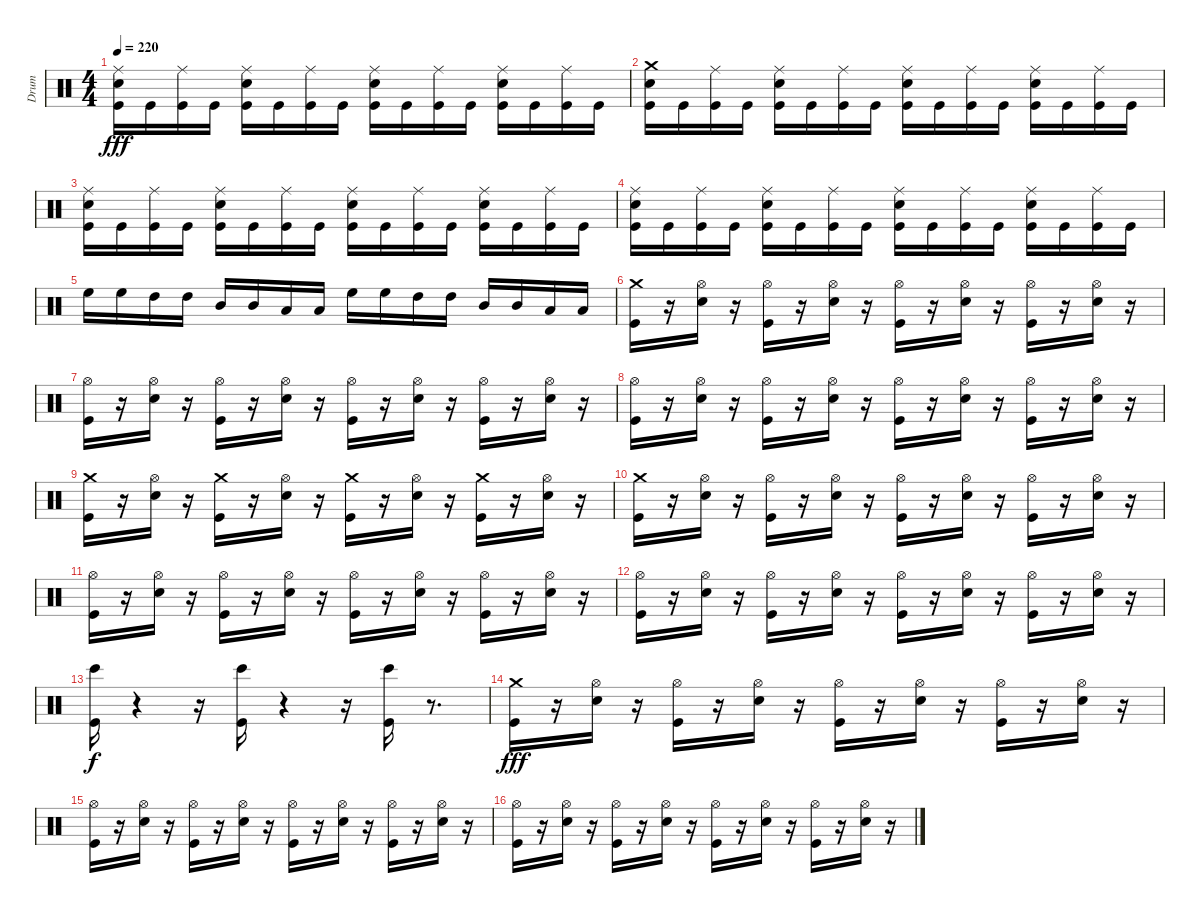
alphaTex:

\track ("Drum" "Drum") {instrument percussion}
\staff {score}
\articulation defaults
\ts (4 4)
\tempo 220
\clef neutral
\ks c
("Snare (hit) 2" "Kick (hit)" "Ride (middle)").16{dy fff} "Kick (hit)".16 ("Kick (hit)" "Ride (middle)").16 "Kick (hit)".16 ("Snare (hit) 2" "Ride (middle)" "Kick (hit)").16 "Kick (hit)".16 ("Kick (hit)" "Ride (middle)").16 "Kick (hit)".16 ("Snare (hit) 2" "Ride (middle)" "Kick (hit)").16 "Kick (hit)".16 ("Ride (middle)" "Kick (hit)").16 "Kick (hit)".16 ("Snare (hit) 2" "Ride (middle)" "Kick (hit)").16 "Kick (hit)".16 ("Ride (middle)" "Kick (hit)").16 "Kick (hit)".16 |
("Crash medium (hit)" "Snare (hit) 2" "Kick (hit)").16 "Kick (hit)".16 ("Ride (middle)" "Kick (hit)").16 "Kick (hit)".16 ("Snare (hit) 2" "Ride (middle)" "Kick (hit)").16 "Kick (hit)".16 ("Kick (hit)" "Ride (middle)").16 "Kick (hit)".16 ("Ride (middle)" "Snare (hit) 2" "Kick (hit)").16 "Kick (hit)".16 ("Kick (hit)" "Ride (middle)").16 "Kick (hit)".16 ("Kick (hit)" "Ride (middle)" "Snare (hit) 2").16 "Kick (hit)".16 ("Ride (middle)" "Kick (hit)").16 "Kick (hit)".16 |
("Ride (middle)" "Snare (hit) 2" "Kick (hit)").16 "Kick (hit)".16 ("Ride (middle)" "Kick (hit)").16 "Kick (hit)".16 ("Kick (hit)" "Ride (middle)" "Snare (hit) 2").16 "Kick (hit)".16 ("Ride (middle)" "Kick (hit)").16 "Kick (hit)".16 ("Snare (hit) 2" "Kick (hit)" "Ride (middle)").16 "Kick (hit)".16 ("Kick (hit)" "Ride (middle)").16 "Kick (hit)".16 ("Snare (hit) 2" "Ride (middle)" "Kick (hit)").16 "Kick (hit)".16 ("Kick (hit)" "Ride (middle)").16 "Kick (hit)".16 |
("Kick (hit)" "Ride (middle)" "Snare (hit) 2").16 "Kick (hit)".16 ("Kick (hit)" "Ride (middle)").16 "Kick (hit)".16 ("Ride (middle)" "Kick (hit)" "Snare (hit) 2").16 "Kick (hit)".16 ("Kick (hit)" "Ride (middle)").16 "Kick (hit)".16 ("Ride (middle)" "Kick (hit)" "Snare (hit) 2").16 "Kick (hit)".16 ("Kick (hit)" "Ride (middle)").16 "Kick (hit)".16 ("Snare (hit) 2" "Ride (middle)" "Kick (hit)").16 "Kick (hit)".16 ("Ride (middle)" "Kick (hit)").16 "Kick (hit)".16 |
"High Floor Tom (hit)".16 "High Floor Tom (hit)".16 "High Tom (hit)".16 "High Tom (hit)".16 "Mid Tom (hit)".16 "Mid Tom (hit)".16 "Low Tom (hit)".16 "Low Tom (hit)".16 "High Floor Tom (hit)".16 "High Floor Tom (hit)".16 "High Tom (hit)".16 "High Tom (hit)".16 "Mid Tom (hit)".16 "Mid Tom (hit)".16 "Low Tom (hit)".16 "Low Tom (hit)".16 |
("Crash medium (hit)" "Kick (hit)").16 r.16 ("Hi-Hat (open)" "Snare (hit) 2").16 r.16 ("Kick (hit)" "Hi-Hat (open)").16 r.16 ("Snare (hit) 2" "Hi-Hat (open)").16 r.16 ("Kick (hit)" "Hi-Hat (open)").16 r.16 ("Hi-Hat (open)" "Snare (hit) 2").16 r.16 ("Hi-Hat (open)" "Kick (hit)").16 r.16 ("Snare (hit) 2" "Hi-Hat (open)").16 r.16 |
("Kick (hit)" "Hi-Hat (open)").16 r.16 ("Hi-Hat (open)" "Snare (hit) 2").16 r.16 ("Hi-Hat (open)" "Kick (hit)").16 r.16 ("Hi-Hat (open)" "Snare (hit) 2").16 r.16 ("Kick (hit)" "Hi-Hat (open)").16 r.16 ("Hi-Hat (open)" "Snare (hit) 2").16 r.16 ("Kick (hit)" "Hi-Hat (open)").16 r.16 ("Hi-Hat (open)" "Snare (hit) 2").16 r.16 |
("Hi-Hat (open)" "Kick (hit)").16 r.16 ("Hi-Hat (open)" "Snare (hit) 2").16 r.16 ("Hi-Hat (open)" "Kick (hit)").16 r.16 ("Snare (hit) 2" "Hi-Hat (open)").16 r.16 ("Hi-Hat (open)" "Kick (hit)").16 r.16 ("Hi-Hat (open)" "Snare (hit) 2").16 r.16 ("Hi-Hat (open)" "Kick (hit)").16 r.16 ("Hi-Hat (open)" "Snare (hit) 2").16 r.16 |
("Kick (hit)" "Crash medium (hit)").16 r.16 ("Snare (hit) 2" "Hi-Hat (open)").16 r.16 ("Kick (hit)" "Crash medium (hit)").16 r.16 ("Snare (hit) 2" "Hi-Hat (open)").16 r.16 ("Crash medium (hit)" "Kick (hit)").16 r.16 ("Snare (hit) 2" "Hi-Hat (open)").16 r.16 ("Crash medium (hit)" "Kick (hit)").16 r.16 ("Hi-Hat (open)" "Snare (hit) 2").16 r.16 |
("Kick (hit)" "Crash medium (hit)").16 r.16 ("Hi-Hat (open)" "Snare (hit) 2").16 r.16 ("Hi-Hat (open)" "Kick (hit)").16 r.16 ("Hi-Hat (open)" "Snare (hit) 2").16 r.16 ("Hi-Hat (open)" "Kick (hit)").16 r.16 ("Snare (hit) 2" "Hi-Hat (open)").16 r.16 ("Hi-Hat (open)" "Kick (hit)").16 r.16 ("Hi-Hat (open)" "Snare (hit) 2").16 r.16 |
("Kick (hit)" "Hi-Hat (open)").16 r.16 ("Hi-Hat (open)" "Snare (hit) 2").16 r.16 ("Hi-Hat (open)" "Kick (hit)").16 r.16 ("Hi-Hat (open)" "Snare (hit) 2").16 r.16 ("Kick (hit)" "Hi-Hat (open)").16 r.16 ("Hi-Hat (open)" "Snare (hit) 2").16 r.16 ("Kick (hit)" "Hi-Hat (open)").16 r.16 ("Hi-Hat (open)" "Snare (hit) 2").16 r.16 |
("Kick (hit)" "Hi-Hat (open)").16 r.16 ("Snare (hit) 2" "Hi-Hat (open)").16 r.16 ("Hi-Hat (open)" "Kick (hit)").16 r.16 ("Hi-Hat (open)" "Snare (hit) 2").16 r.16 ("Hi-Hat (open)" "Kick (hit)").16 r.16 ("Snare (hit) 2" "Hi-Hat (open)").16 r.16 ("Hi-Hat (open)" "Kick (hit)").16 r.16 ("Hi-Hat (open)" "Snare (hit) 2").16 r.16 |
("Bongo High (hit)" "Kick (hit)").16{dy f} r.4 r.16 ("Bongo High (hit)" "Kick (hit)").16 r.4 r.16 ("Bongo High (hit)" "Kick (hit)").16 r.8{d} |
("Crash medium (hit)" "Kick (hit)").16{dy fff} r.16 ("Snare (hit) 2" "Hi-Hat (open)").16 r.16 ("Hi-Hat (open)" "Kick (hit)").16 r.16 ("Snare (hit) 2" "Hi-Hat (open)").16 r.16 ("Hi-Hat (open)" "Kick (hit)").16 r.16 ("Hi-Hat (open)" "Snare (hit) 2").16 r.16 ("Hi-Hat (open)" "Kick (hit)").16 r.16 ("Snare (hit) 2" "Hi-Hat (open)").16 r.16 |
("Kick (hit)" "Hi-Hat (open)").16 r.16 ("Snare (hit) 2" "Hi-Hat (open)").16 r.16 ("Kick (hit)" "Hi-Hat (open)").16 r.16 ("Hi-Hat (open)" "Snare (hit) 2").16 r.16 ("Kick (hit)" "Hi-Hat (open)").16 r.16 ("Hi-Hat (open)" "Snare (hit) 2").16 r.16 ("Kick (hit)" "Hi-Hat (open)").16 r.16 ("Snare (hit) 2" "Hi-Hat (open)").16 r.16 |
("Kick (hit)" "Hi-Hat (open)").16 r.16 ("Hi-Hat (open)" "Snare (hit) 2").16 r.16 ("Kick (hit)" "Hi-Hat (open)").16 r.16 ("Snare (hit) 2" "Hi-Hat (open)").16 r.16 ("Hi-Hat (open)" "Kick (hit)").16 r.16 ("Snare (hit) 2" "Hi-Hat (open)").16 r.16 ("Hi-Hat (open)" "Kick (hit)").16 r.16 ("Hi-Hat (open)" "Snare (hit) 2").16 r.16
